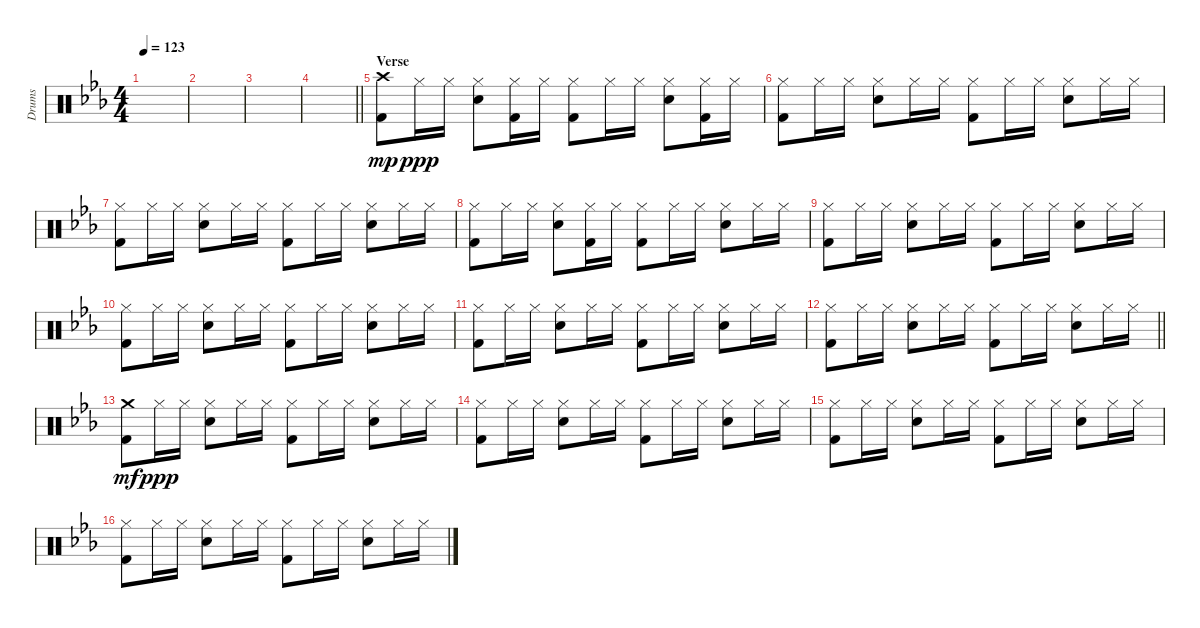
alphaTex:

\track ("Drums" "Drums") {instrument percussion}
\staff {score}
\articulation defaults
\ts (4 4)
\tempo 123
\clef neutral
\ks eb
|
|
|
\barLineRight lightlight
|
\section ("" "Verse")
("Crash high (hit)" "Kick (hit) 2").8{dy mp} "Hi-Hat (closed)".16{dy ppp} "Hi-Hat (closed)".16 ("Hi-Hat (closed)" "Electric Snare (hit)").8 ("Hi-Hat (closed)" "Kick (hit) 2").16 "Hi-Hat (closed)".16 ("Hi-Hat (closed)" "Kick (hit) 2").8 "Hi-Hat (closed)".16 "Hi-Hat (closed)".16 ("Hi-Hat (closed)" "Electric Snare (hit)").8 ("Hi-Hat (closed)" "Kick (hit) 2").16 "Hi-Hat (closed)".16 |
("Hi-Hat (closed)" "Kick (hit) 2").8 "Hi-Hat (closed)".16 "Hi-Hat (closed)".16 ("Hi-Hat (closed)" "Electric Snare (hit)").8 "Hi-Hat (closed)".16 "Hi-Hat (closed)".16 ("Hi-Hat (closed)" "Kick (hit) 2").8 "Hi-Hat (closed)".16 "Hi-Hat (closed)".16 ("Hi-Hat (closed)" "Electric Snare (hit)").8 "Hi-Hat (closed)".16 "Hi-Hat (closed)".16 |
("Hi-Hat (closed)" "Kick (hit) 2").8 "Hi-Hat (closed)".16 "Hi-Hat (closed)".16 ("Hi-Hat (closed)" "Electric Snare (hit)").8 "Hi-Hat (closed)".16 "Hi-Hat (closed)".16 ("Hi-Hat (closed)" "Kick (hit) 2").8 "Hi-Hat (closed)".16 "Hi-Hat (closed)".16 ("Hi-Hat (closed)" "Electric Snare (hit)").8 "Hi-Hat (closed)".16 "Hi-Hat (closed)".16 |
("Hi-Hat (closed)" "Kick (hit) 2").8 "Hi-Hat (closed)".16 "Hi-Hat (closed)".16 ("Hi-Hat (closed)" "Electric Snare (hit)").8 ("Hi-Hat (closed)" "Kick (hit) 2").16 "Hi-Hat (closed)".16 ("Hi-Hat (closed)" "Kick (hit) 2").8 "Hi-Hat (closed)".16 "Hi-Hat (closed)".16 ("Hi-Hat (closed)" "Electric Snare (hit)").8 "Hi-Hat (closed)".16 "Hi-Hat (closed)".16 |
("Hi-Hat (closed)" "Kick (hit) 2").8 "Hi-Hat (closed)".16 "Hi-Hat (closed)".16 ("Hi-Hat (closed)" "Electric Snare (hit)").8 "Hi-Hat (closed)".16 "Hi-Hat (closed)".16 ("Hi-Hat (closed)" "Kick (hit) 2").8 "Hi-Hat (closed)".16 "Hi-Hat (closed)".16 ("Hi-Hat (closed)" "Electric Snare (hit)").8 "Hi-Hat (closed)".16 "Hi-Hat (closed)".16 |
("Hi-Hat (closed)" "Kick (hit) 2").8 "Hi-Hat (closed)".16 "Hi-Hat (closed)".16 ("Hi-Hat (closed)" "Electric Snare (hit)").8 "Hi-Hat (closed)".16 "Hi-Hat (closed)".16 ("Hi-Hat (closed)" "Kick (hit) 2").8 "Hi-Hat (closed)".16 "Hi-Hat (closed)".16 ("Hi-Hat (closed)" "Electric Snare (hit)").8 "Hi-Hat (closed)".16 "Hi-Hat (closed)".16 |
("Hi-Hat (closed)" "Kick (hit) 2").8 "Hi-Hat (closed)".16 "Hi-Hat (closed)".16 ("Hi-Hat (closed)" "Electric Snare (hit)").8 "Hi-Hat (closed)".16 "Hi-Hat (closed)".16 ("Hi-Hat (closed)" "Kick (hit) 2").8 "Hi-Hat (closed)".16 "Hi-Hat (closed)".16 ("Hi-Hat (closed)" "Electric Snare (hit)").8 "Hi-Hat (closed)".16 "Hi-Hat (closed)".16 |
\barLineRight lightlight
("Hi-Hat (closed)" "Kick (hit) 2").8 "Hi-Hat (closed)".16 "Hi-Hat (closed)".16 ("Hi-Hat (closed)" "Electric Snare (hit)").8 "Hi-Hat (closed)".16 "Hi-Hat (closed)".16 ("Hi-Hat (closed)" "Kick (hit) 2").8 "Hi-Hat (closed)".16 "Hi-Hat (closed)".16 ("Hi-Hat (closed)" "Electric Snare (hit)").8 "Hi-Hat (closed)".16 "Hi-Hat (closed)".16 |
("Crash medium (hit)" "Kick (hit) 2").8{dy mf} "Hi-Hat (closed)".16{dy ppp} "Hi-Hat (closed)".16 ("Hi-Hat (closed)" "Electric Snare (hit)").8 "Hi-Hat (closed)".16 "Hi-Hat (closed)".16 ("Hi-Hat (closed)" "Kick (hit) 2").8 "Hi-Hat (closed)".16 "Hi-Hat (closed)".16 ("Hi-Hat (closed)" "Electric Snare (hit)").8 "Hi-Hat (closed)".16 "Hi-Hat (closed)".16 |
("Hi-Hat (closed)" "Kick (hit) 2").8 "Hi-Hat (closed)".16 "Hi-Hat (closed)".16 ("Hi-Hat (closed)" "Electric Snare (hit)").8 "Hi-Hat (closed)".16 "Hi-Hat (closed)".16 ("Hi-Hat (closed)" "Kick (hit) 2").8 "Hi-Hat (closed)".16 "Hi-Hat (closed)".16 ("Hi-Hat (closed)" "Electric Snare (hit)").8 "Hi-Hat (closed)".16 "Hi-Hat (closed)".16 |
("Hi-Hat (closed)" "Kick (hit) 2").8 "Hi-Hat (closed)".16 "Hi-Hat (closed)".16 ("Hi-Hat (closed)" "Electric Snare (hit)").8 "Hi-Hat (closed)".16 "Hi-Hat (closed)".16 ("Hi-Hat (closed)" "Kick (hit) 2").8 "Hi-Hat (closed)".16 "Hi-Hat (closed)".16 ("Hi-Hat (closed)" "Electric Snare (hit)").8 "Hi-Hat (closed)".16 "Hi-Hat (closed)".16 |
("Hi-Hat (closed)" "Kick (hit) 2").8 "Hi-Hat (closed)".16 "Hi-Hat (closed)".16 ("Hi-Hat (closed)" "Electric Snare (hit)").8 "Hi-Hat (closed)".16 "Hi-Hat (closed)".16 ("Hi-Hat (closed)" "Kick (hit) 2").8 "Hi-Hat (closed)".16 "Hi-Hat (closed)".16 ("Hi-Hat (closed)" "Electric Snare (hit)").8 "Hi-Hat (closed)".16 "Hi-Hat (closed)".16
